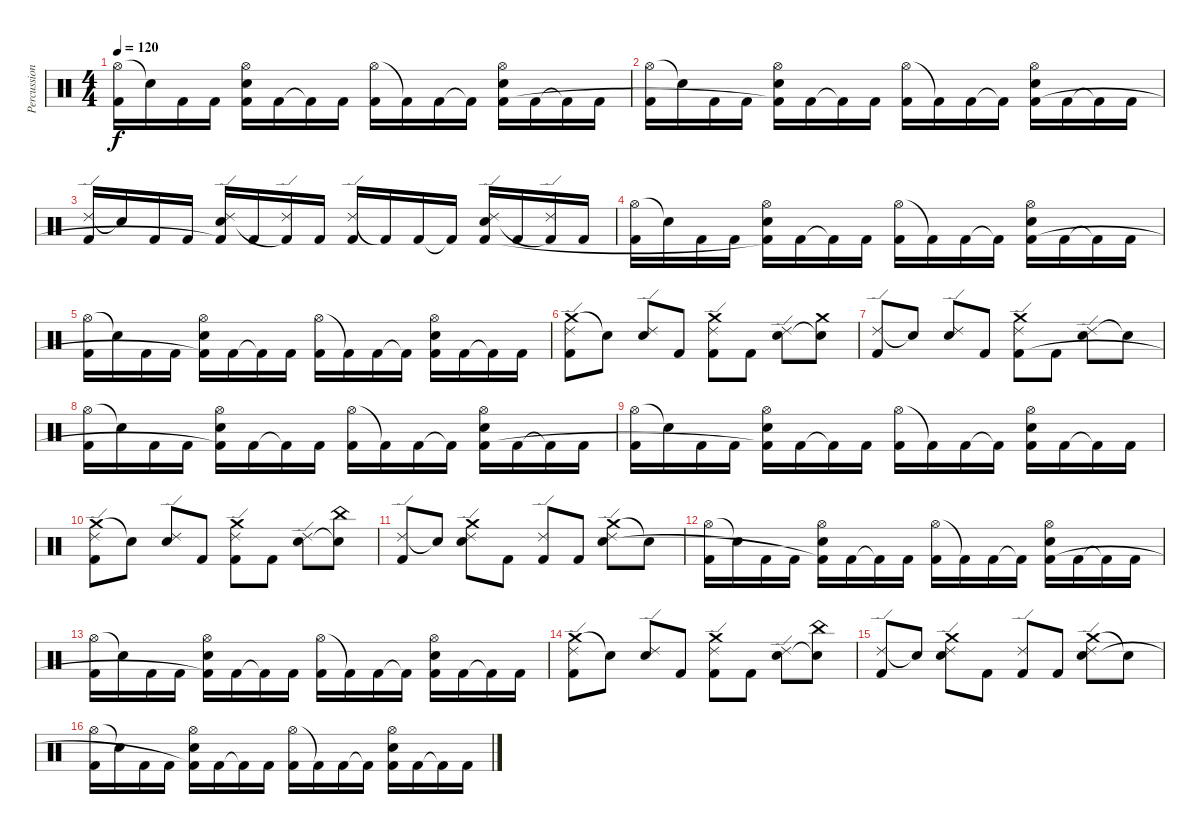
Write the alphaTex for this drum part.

\track ("Percussion" "Percussion") {instrument percussion}
\staff {score}
\articulation defaults
\ts (4 4)
\tempo 120
\clef neutral
\ks c
("Hi-Hat (open)" "Kick (hit) 2").16{dy f} "Snare (hit)"{t}.16 "Kick (hit) 2".16 "Kick (hit) 2".16 ("Hi-Hat (open)" "Electric Snare (hit)" "Kick (hit) 2"{t}).16 "Kick (hit) 2".16 "Kick (hit) 2"{t}.16 "Kick (hit) 2".16 ("Hi-Hat (open)" "Kick (hit) 2").16 "Kick (hit) 2"{t}.16 "Kick (hit) 2".16 "Kick (hit) 2"{t}.16 ("Hi-Hat (open)" "Electric Snare (hit)" "Kick (hit) 2").16 "Kick (hit) 2".16 "Kick (hit) 2"{t}.16 "Kick (hit) 2".16 |
("Hi-Hat (open)" "Kick (hit) 2").16 "Snare (hit)"{t}.16 "Kick (hit) 2".16 "Kick (hit) 2".16 ("Hi-Hat (open)" "Electric Snare (hit)" "Kick (hit) 2"{t}).16 "Kick (hit) 2".16 "Kick (hit) 2"{t}.16 "Kick (hit) 2".16 ("Hi-Hat (open)" "Kick (hit) 2").16 "Kick (hit) 2"{t}.16 "Kick (hit) 2".16 "Kick (hit) 2"{t}.16 ("Hi-Hat (open)" "Electric Snare (hit)" "Kick (hit) 2").16 "Kick (hit) 2".16 "Kick (hit) 2"{t}.16 "Kick (hit) 2".16 |
("Ride (edge) 2" "Kick (hit) 2").16 "Snare (hit)"{t}.16 "Kick (hit) 2".16 "Kick (hit) 2".16 ("Ride (edge) 2" "Electric Snare (hit)" "Kick (hit) 2"{t}).16 "Kick (hit) 2".16 ("Ride (edge) 2" "Kick (hit) 2"{t}).16 "Kick (hit) 2".16 ("Ride (edge) 2" "Kick (hit) 2").16 "Kick (hit) 2"{t}.16 "Kick (hit) 2".16 "Kick (hit) 2"{t}.16 ("Ride (edge) 2" "Electric Snare (hit)" "Kick (hit) 2").16 "Kick (hit) 2".16 ("Ride (edge) 2" "Kick (hit) 2"{t}).16 "Kick (hit) 2".16 |
("Hi-Hat (open)" "Kick (hit) 2").16 "Snare (hit)"{t}.16 "Kick (hit) 2".16 "Kick (hit) 2".16 ("Hi-Hat (open)" "Electric Snare (hit)" "Kick (hit) 2"{t}).16 "Kick (hit) 2".16 "Kick (hit) 2"{t}.16 "Kick (hit) 2".16 ("Hi-Hat (open)" "Kick (hit) 2").16 "Kick (hit) 2"{t}.16 "Kick (hit) 2".16 "Kick (hit) 2"{t}.16 ("Hi-Hat (open)" "Electric Snare (hit)" "Kick (hit) 2").16 "Kick (hit) 2".16 "Kick (hit) 2"{t}.16 "Kick (hit) 2".16 |
("Hi-Hat (open)" "Kick (hit) 2").16 "Snare (hit)"{t}.16 "Kick (hit) 2".16 "Kick (hit) 2".16 ("Hi-Hat (open)" "Electric Snare (hit)" "Kick (hit) 2"{t}).16 "Kick (hit) 2".16 "Kick (hit) 2"{t}.16 "Kick (hit) 2".16 ("Hi-Hat (open)" "Kick (hit) 2").16 "Kick (hit) 2"{t}.16 "Kick (hit) 2".16 "Kick (hit) 2"{t}.16 ("Hi-Hat (open)" "Electric Snare (hit)" "Kick (hit) 2").16 "Kick (hit) 2".16 "Kick (hit) 2"{t}.16 "Kick (hit) 2".16 |
("Crash medium (hit)" "Ride (edge) 2" "Kick (hit) 2").8 "Snare (hit)"{t}.8 ("Ride (edge) 2" "Electric Snare (hit)").8 "Kick (hit) 2".8 ("Crash medium (hit)" "Ride (edge) 2" "Kick (hit) 2").8 "Kick (hit) 2".8 ("Ride (edge) 2" "Electric Snare (hit)").8 ("Crash medium (hit)" "Snare (hit)"{t}).8 |
("Ride (edge) 2" "Kick (hit) 2").8 "Snare (hit)"{t}.8 ("Ride (edge) 2" "Electric Snare (hit)").8 "Kick (hit) 2".8 ("Crash medium (hit)" "Ride (edge) 2" "Kick (hit) 2").8 "Kick (hit) 2".8 ("Ride (edge) 2" "Electric Snare (hit)").8 "Snare (hit)"{t}.8 |
("Hi-Hat (open)" "Kick (hit) 2").16 "Snare (hit)"{t}.16 "Kick (hit) 2".16 "Kick (hit) 2".16 ("Hi-Hat (open)" "Electric Snare (hit)" "Kick (hit) 2"{t}).16 "Kick (hit) 2".16 "Kick (hit) 2"{t}.16 "Kick (hit) 2".16 ("Hi-Hat (open)" "Kick (hit) 2").16 "Kick (hit) 2"{t}.16 "Kick (hit) 2".16 "Kick (hit) 2"{t}.16 ("Hi-Hat (open)" "Electric Snare (hit)" "Kick (hit) 2").16 "Kick (hit) 2".16 "Kick (hit) 2"{t}.16 "Kick (hit) 2".16 |
("Hi-Hat (open)" "Kick (hit) 2").16 "Snare (hit)"{t}.16 "Kick (hit) 2".16 "Kick (hit) 2".16 ("Hi-Hat (open)" "Electric Snare (hit)" "Kick (hit) 2"{t}).16 "Kick (hit) 2".16 "Kick (hit) 2"{t}.16 "Kick (hit) 2".16 ("Hi-Hat (open)" "Kick (hit) 2").16 "Kick (hit) 2"{t}.16 "Kick (hit) 2".16 "Kick (hit) 2"{t}.16 ("Hi-Hat (open)" "Electric Snare (hit)" "Kick (hit) 2").16 "Kick (hit) 2".16 "Kick (hit) 2"{t}.16 "Kick (hit) 2".16 |
("Crash medium (hit)" "Ride (edge) 2" "Kick (hit) 2").8 "Snare (hit)"{t}.8 ("Ride (edge) 2" "Electric Snare (hit)").8 "Kick (hit) 2".8 ("Crash medium (hit)" "Ride (edge) 2" "Kick (hit) 2").8 "Kick (hit) 2".8 ("Ride (edge) 2" "Electric Snare (hit)").8 ("China (hit)" "Snare (hit)"{t}).8 |
("Ride (edge) 2" "Kick (hit) 2").8 "Snare (hit)"{t}.8 ("Crash medium (hit)" "Ride (edge) 2" "Electric Snare (hit)").8 "Kick (hit) 2".8 ("Ride (edge) 2" "Kick (hit) 2").8 "Kick (hit) 2".8 ("Crash medium (hit)" "Ride (edge) 2" "Electric Snare (hit)").8 "Snare (hit)"{t}.8 |
("Hi-Hat (open)" "Kick (hit) 2").16 "Snare (hit)"{t}.16 "Kick (hit) 2".16 "Kick (hit) 2".16 ("Hi-Hat (open)" "Electric Snare (hit)" "Kick (hit) 2"{t}).16 "Kick (hit) 2".16 "Kick (hit) 2"{t}.16 "Kick (hit) 2".16 ("Hi-Hat (open)" "Kick (hit) 2").16 "Kick (hit) 2"{t}.16 "Kick (hit) 2".16 "Kick (hit) 2"{t}.16 ("Hi-Hat (open)" "Electric Snare (hit)" "Kick (hit) 2").16 "Kick (hit) 2".16 "Kick (hit) 2"{t}.16 "Kick (hit) 2".16 |
("Hi-Hat (open)" "Kick (hit) 2").16 "Snare (hit)"{t}.16 "Kick (hit) 2".16 "Kick (hit) 2".16 ("Hi-Hat (open)" "Electric Snare (hit)" "Kick (hit) 2"{t}).16 "Kick (hit) 2".16 "Kick (hit) 2"{t}.16 "Kick (hit) 2".16 ("Hi-Hat (open)" "Kick (hit) 2").16 "Kick (hit) 2"{t}.16 "Kick (hit) 2".16 "Kick (hit) 2"{t}.16 ("Hi-Hat (open)" "Electric Snare (hit)" "Kick (hit) 2").16 "Kick (hit) 2".16 "Kick (hit) 2"{t}.16 "Kick (hit) 2".16 |
("Crash medium (hit)" "Ride (edge) 2" "Kick (hit) 2").8 "Snare (hit)"{t}.8 ("Ride (edge) 2" "Electric Snare (hit)").8 "Kick (hit) 2".8 ("Crash medium (hit)" "Ride (edge) 2" "Kick (hit) 2").8 "Kick (hit) 2".8 ("Ride (edge) 2" "Electric Snare (hit)").8 ("China (hit)" "Snare (hit)"{t}).8 |
("Ride (edge) 2" "Kick (hit) 2").8 "Snare (hit)"{t}.8 ("Crash medium (hit)" "Ride (edge) 2" "Electric Snare (hit)").8 "Kick (hit) 2".8 ("Ride (edge) 2" "Kick (hit) 2").8 "Kick (hit) 2".8 ("Crash medium (hit)" "Ride (edge) 2" "Electric Snare (hit)").8 "Snare (hit)"{t}.8 |
("Hi-Hat (open)" "Kick (hit) 2").16 "Snare (hit)"{t}.16 "Kick (hit) 2".16 "Kick (hit) 2".16 ("Hi-Hat (open)" "Electric Snare (hit)" "Kick (hit) 2"{t}).16 "Kick (hit) 2".16 "Kick (hit) 2"{t}.16 "Kick (hit) 2".16 ("Hi-Hat (open)" "Kick (hit) 2").16 "Kick (hit) 2"{t}.16 "Kick (hit) 2".16 "Kick (hit) 2"{t}.16 ("Hi-Hat (open)" "Electric Snare (hit)" "Kick (hit) 2").16 "Kick (hit) 2".16 "Kick (hit) 2"{t}.16 "Kick (hit) 2".16
